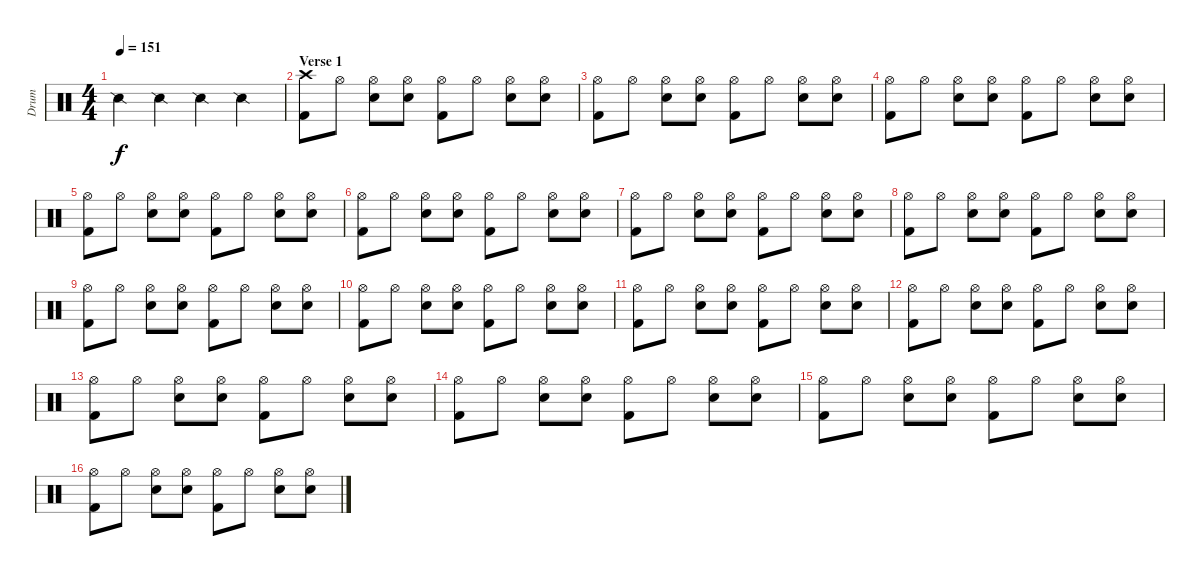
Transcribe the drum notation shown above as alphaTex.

\track ("Drum" "Drum") {instrument percussion}
\staff {score}
\articulation defaults
\ts (4 4)
\tempo 151
\clef neutral
\ks c "Snare (side stick) 2".4{dy f} "Snare (side stick) 2".4 "Snare (side stick) 2".4 "Snare (side stick) 2".4
|
\section ("" "Verse 1")
("Crash high (hit)" "Kick (hit) 2").8 "Hi-Hat (open)".8 ("Hi-Hat (open)" "Electric Snare (hit)").8 ("Hi-Hat (open)" "Electric Snare (hit)").8 ("Hi-Hat (open)" "Kick (hit) 2").8 "Hi-Hat (open)".8 ("Hi-Hat (open)" "Electric Snare (hit)").8 ("Hi-Hat (open)" "Electric Snare (hit)").8 |
("Hi-Hat (open)" "Kick (hit) 2").8 "Hi-Hat (open)".8 ("Hi-Hat (open)" "Electric Snare (hit)").8 ("Hi-Hat (open)" "Electric Snare (hit)").8 ("Hi-Hat (open)" "Kick (hit) 2").8 "Hi-Hat (open)".8 ("Hi-Hat (open)" "Electric Snare (hit)").8 ("Hi-Hat (open)" "Electric Snare (hit)").8 |
("Hi-Hat (open)" "Kick (hit) 2").8 "Hi-Hat (open)".8 ("Hi-Hat (open)" "Electric Snare (hit)").8 ("Hi-Hat (open)" "Electric Snare (hit)").8 ("Hi-Hat (open)" "Kick (hit) 2").8 "Hi-Hat (open)".8 ("Hi-Hat (open)" "Electric Snare (hit)").8 ("Hi-Hat (open)" "Electric Snare (hit)").8 |
("Hi-Hat (open)" "Kick (hit) 2").8 "Hi-Hat (open)".8 ("Hi-Hat (open)" "Electric Snare (hit)").8 ("Hi-Hat (open)" "Electric Snare (hit)").8 ("Hi-Hat (open)" "Kick (hit) 2").8 "Hi-Hat (open)".8 ("Hi-Hat (open)" "Electric Snare (hit)").8 ("Hi-Hat (open)" "Electric Snare (hit)").8 |
("Hi-Hat (open)" "Kick (hit) 2").8 "Hi-Hat (open)".8 ("Hi-Hat (open)" "Electric Snare (hit)").8 ("Hi-Hat (open)" "Electric Snare (hit)").8 ("Hi-Hat (open)" "Kick (hit) 2").8 "Hi-Hat (open)".8 ("Hi-Hat (open)" "Electric Snare (hit)").8 ("Hi-Hat (open)" "Electric Snare (hit)").8 |
("Hi-Hat (open)" "Kick (hit) 2").8 "Hi-Hat (open)".8 ("Hi-Hat (open)" "Electric Snare (hit)").8 ("Hi-Hat (open)" "Electric Snare (hit)").8 ("Hi-Hat (open)" "Kick (hit) 2").8 "Hi-Hat (open)".8 ("Hi-Hat (open)" "Electric Snare (hit)").8 ("Hi-Hat (open)" "Electric Snare (hit)").8 |
("Hi-Hat (open)" "Kick (hit) 2").8 "Hi-Hat (open)".8 ("Hi-Hat (open)" "Electric Snare (hit)").8 ("Hi-Hat (open)" "Electric Snare (hit)").8 ("Hi-Hat (open)" "Kick (hit) 2").8 "Hi-Hat (open)".8 ("Hi-Hat (open)" "Electric Snare (hit)").8 ("Hi-Hat (open)" "Electric Snare (hit)").8 |
("Hi-Hat (open)" "Kick (hit) 2").8 "Hi-Hat (open)".8 ("Hi-Hat (open)" "Electric Snare (hit)").8 ("Hi-Hat (open)" "Electric Snare (hit)").8 ("Hi-Hat (open)" "Kick (hit) 2").8 "Hi-Hat (open)".8 ("Hi-Hat (open)" "Electric Snare (hit)").8 ("Hi-Hat (open)" "Electric Snare (hit)").8 |
("Hi-Hat (open)" "Kick (hit) 2").8 "Hi-Hat (open)".8 ("Hi-Hat (open)" "Electric Snare (hit)").8 ("Hi-Hat (open)" "Electric Snare (hit)").8 ("Hi-Hat (open)" "Kick (hit) 2").8 "Hi-Hat (open)".8 ("Hi-Hat (open)" "Electric Snare (hit)").8 ("Hi-Hat (open)" "Electric Snare (hit)").8 |
("Hi-Hat (open)" "Kick (hit) 2").8 "Hi-Hat (open)".8 ("Hi-Hat (open)" "Electric Snare (hit)").8 ("Hi-Hat (open)" "Electric Snare (hit)").8 ("Hi-Hat (open)" "Kick (hit) 2").8 "Hi-Hat (open)".8 ("Hi-Hat (open)" "Electric Snare (hit)").8 ("Hi-Hat (open)" "Electric Snare (hit)").8 |
("Hi-Hat (open)" "Kick (hit) 2").8 "Hi-Hat (open)".8 ("Hi-Hat (open)" "Electric Snare (hit)").8 ("Hi-Hat (open)" "Electric Snare (hit)").8 ("Hi-Hat (open)" "Kick (hit) 2").8 "Hi-Hat (open)".8 ("Hi-Hat (open)" "Electric Snare (hit)").8 ("Hi-Hat (open)" "Electric Snare (hit)").8 |
("Hi-Hat (open)" "Kick (hit) 2").8 "Hi-Hat (open)".8 ("Hi-Hat (open)" "Electric Snare (hit)").8 ("Hi-Hat (open)" "Electric Snare (hit)").8 ("Hi-Hat (open)" "Kick (hit) 2").8 "Hi-Hat (open)".8 ("Hi-Hat (open)" "Electric Snare (hit)").8 ("Hi-Hat (open)" "Electric Snare (hit)").8 |
("Hi-Hat (open)" "Kick (hit) 2").8 "Hi-Hat (open)".8 ("Hi-Hat (open)" "Electric Snare (hit)").8 ("Hi-Hat (open)" "Electric Snare (hit)").8 ("Hi-Hat (open)" "Kick (hit) 2").8 "Hi-Hat (open)".8 ("Hi-Hat (open)" "Electric Snare (hit)").8 ("Hi-Hat (open)" "Electric Snare (hit)").8 |
("Hi-Hat (open)" "Kick (hit) 2").8 "Hi-Hat (open)".8 ("Hi-Hat (open)" "Electric Snare (hit)").8 ("Hi-Hat (open)" "Electric Snare (hit)").8 ("Hi-Hat (open)" "Kick (hit) 2").8 "Hi-Hat (open)".8 ("Hi-Hat (open)" "Electric Snare (hit)").8 ("Hi-Hat (open)" "Electric Snare (hit)").8 |
("Hi-Hat (open)" "Kick (hit) 2").8 "Hi-Hat (open)".8 ("Hi-Hat (open)" "Electric Snare (hit)").8 ("Hi-Hat (open)" "Electric Snare (hit)").8 ("Hi-Hat (open)" "Kick (hit) 2").8 "Hi-Hat (open)".8 ("Hi-Hat (open)" "Electric Snare (hit)").8 ("Hi-Hat (open)" "Electric Snare (hit)").8
